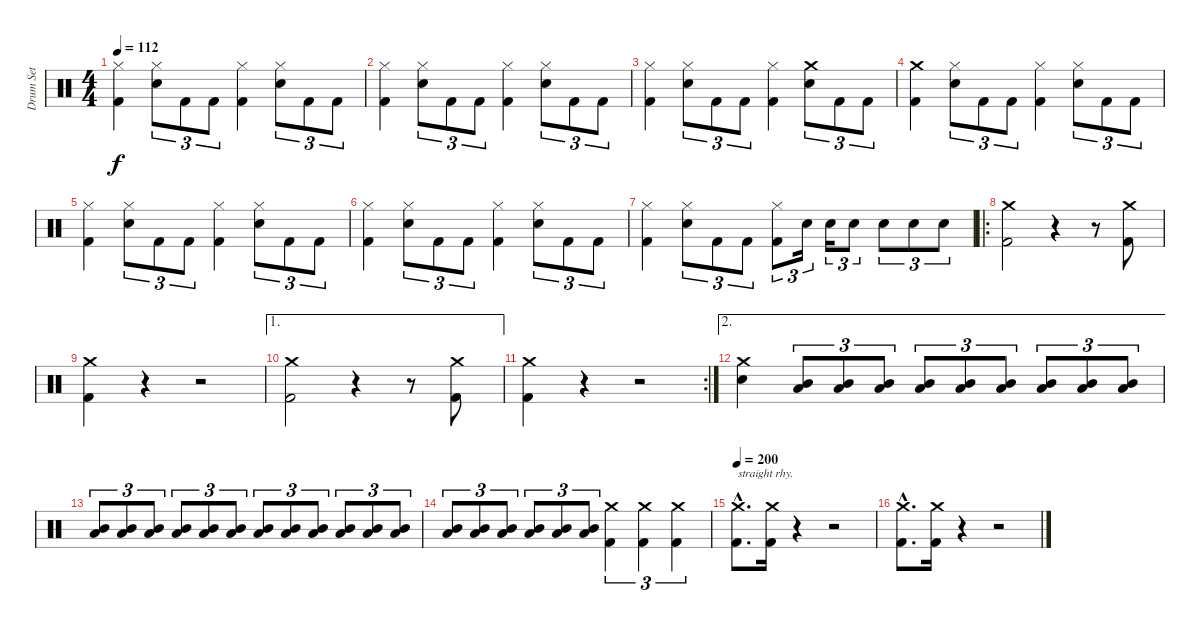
\track ("Drum Set" "Drum Set") {instrument percussion}
\staff {score}
\articulation defaults
\ts (4 4)
\tempo 112
\clef neutral
\ks c
("Hi-Hat (closed)" "Kick (hit) 2").4{dy f} ("Hi-Hat (closed)" "Snare (hit) 2").8{tu (3 2)} "Kick (hit) 2".8{tu (3 2)} "Kick (hit) 2".8{tu (3 2)} ("Hi-Hat (closed)" "Kick (hit) 2").4 ("Hi-Hat (closed)" "Snare (hit) 2").8{tu (3 2)} "Kick (hit) 2".8{tu (3 2)} "Kick (hit) 2".8{tu (3 2)} |
("Hi-Hat (closed)" "Kick (hit) 2").4 ("Hi-Hat (closed)" "Snare (hit) 2").8{tu (3 2)} "Kick (hit) 2".8{tu (3 2)} "Kick (hit) 2".8{tu (3 2)} ("Hi-Hat (closed)" "Kick (hit) 2").4 ("Hi-Hat (closed)" "Snare (hit) 2").8{tu (3 2)} "Kick (hit) 2".8{tu (3 2)} "Kick (hit) 2".8{tu (3 2)} |
("Hi-Hat (closed)" "Kick (hit) 2").4 ("Hi-Hat (closed)" "Snare (hit) 2").8{tu (3 2)} "Kick (hit) 2".8{tu (3 2)} "Kick (hit) 2".8{tu (3 2)} ("Hi-Hat (closed)" "Kick (hit) 2").4 ("Crash medium (hit)" "Snare (hit) 2").8{tu (3 2)} "Kick (hit) 2".8{tu (3 2)} "Kick (hit) 2".8{tu (3 2)} |
("Crash medium (hit)" "Kick (hit) 2").4 ("Hi-Hat (closed)" "Snare (hit) 2").8{tu (3 2)} "Kick (hit) 2".8{tu (3 2)} "Kick (hit) 2".8{tu (3 2)} ("Hi-Hat (closed)" "Kick (hit) 2").4 ("Hi-Hat (closed)" "Snare (hit) 2").8{tu (3 2)} "Kick (hit) 2".8{tu (3 2)} "Kick (hit) 2".8{tu (3 2)} |
("Hi-Hat (closed)" "Kick (hit) 2").4 ("Hi-Hat (closed)" "Snare (hit) 2").8{tu (3 2)} "Kick (hit) 2".8{tu (3 2)} "Kick (hit) 2".8{tu (3 2)} ("Hi-Hat (closed)" "Kick (hit) 2").4 ("Hi-Hat (closed)" "Snare (hit) 2").8{tu (3 2)} "Kick (hit) 2".8{tu (3 2)} "Kick (hit) 2".8{tu (3 2)} |
("Hi-Hat (closed)" "Kick (hit) 2").4 ("Hi-Hat (closed)" "Snare (hit) 2").8{tu (3 2)} "Kick (hit) 2".8{tu (3 2)} "Kick (hit) 2".8{tu (3 2)} ("Hi-Hat (closed)" "Kick (hit) 2").4 ("Hi-Hat (closed)" "Snare (hit) 2").8{tu (3 2)} "Kick (hit) 2".8{tu (3 2)} "Kick (hit) 2".8{tu (3 2)} |
("Hi-Hat (closed)" "Kick (hit) 2").4 ("Hi-Hat (closed)" "Snare (hit) 2").8{tu (3 2)} "Kick (hit) 2".8{tu (3 2)} "Kick (hit) 2".8{tu (3 2)} ("Hi-Hat (closed)" "Kick (hit) 2").8{tu (3 2)} "Snare (hit) 2".16{tu (3 2)} "Snare (hit) 2".16{tu (3 2)} "Snare (hit) 2".8{tu (3 2)} "Snare (hit) 2".8{tu (3 2)} "Snare (hit) 2".8{tu (3 2)} "Snare (hit) 2".8{tu (3 2)} |
\ro
("Crash medium (hit)" "Kick (hit) 2").2 r.4 r.8 ("Crash medium (hit)" "Kick (hit) 2").8 |
("Crash medium (hit)" "Kick (hit) 2").4 r.4 r.2 |
\ae 1
("Crash medium (hit)" "Kick (hit) 2").2 r.4 r.8 ("Crash medium (hit)" "Kick (hit) 2").8 |
\rc 2
("Crash medium (hit)" "Kick (hit) 2").4 r.4 r.2 |
\ae 2
("Crash medium (hit)" "Snare (hit) 2").4 ("Mid Tom (hit)" "Low Tom (hit)").8{tu (3 2)} ("Mid Tom (hit)" "Low Tom (hit)").8{tu (3 2)} ("Mid Tom (hit)" "Low Tom (hit)").8{tu (3 2)} ("Mid Tom (hit)" "Low Tom (hit)").8{tu (3 2)} ("Mid Tom (hit)" "Low Tom (hit)").8{tu (3 2)} ("Mid Tom (hit)" "Low Tom (hit)").8{tu (3 2)} ("Mid Tom (hit)" "Low Tom (hit)").8{tu (3 2)} ("Mid Tom (hit)" "Low Tom (hit)").8{tu (3 2)} ("Mid Tom (hit)" "Low Tom (hit)").8{tu (3 2)} |
("Mid Tom (hit)" "Low Tom (hit)").8{tu (3 2)} ("Mid Tom (hit)" "Low Tom (hit)").8{tu (3 2)} ("Mid Tom (hit)" "Low Tom (hit)").8{tu (3 2)} ("Mid Tom (hit)" "Low Tom (hit)").8{tu (3 2)} ("Mid Tom (hit)" "Low Tom (hit)").8{tu (3 2)} ("Mid Tom (hit)" "Low Tom (hit)").8{tu (3 2)} ("Mid Tom (hit)" "Low Tom (hit)").8{tu (3 2)} ("Mid Tom (hit)" "Low Tom (hit)").8{tu (3 2)} ("Mid Tom (hit)" "Low Tom (hit)").8{tu (3 2)} ("Mid Tom (hit)" "Low Tom (hit)").8{tu (3 2)} ("Mid Tom (hit)" "Low Tom (hit)").8{tu (3 2)} ("Mid Tom (hit)" "Low Tom (hit)").8{tu (3 2)} |
("Mid Tom (hit)" "Low Tom (hit)").8{tu (3 2)} ("Mid Tom (hit)" "Low Tom (hit)").8{tu (3 2)} ("Mid Tom (hit)" "Low Tom (hit)").8{tu (3 2)} ("Mid Tom (hit)" "Low Tom (hit)").8{tu (3 2)} ("Mid Tom (hit)" "Low Tom (hit)").8{tu (3 2)} ("Mid Tom (hit)" "Low Tom (hit)").8{tu (3 2)} ("Crash medium (hit)" "Kick (hit) 2").4{tu (3 2)} ("Crash medium (hit)" "Kick (hit) 2").4{tu (3 2)} ("Crash medium (hit)" "Kick (hit) 2").4{tu (3 2)} |
\tempo 200
("Crash medium (hit)"{hac} "Kick (hit) 2"{hac}).8{d txt "straight rhy."} ("Crash medium (hit)" "Kick (hit) 2").16 r.4 r.2 |
("Crash medium (hit)"{hac} "Kick (hit) 2"{hac}).8{d} ("Crash medium (hit)" "Kick (hit) 2").16 r.4 r.2
